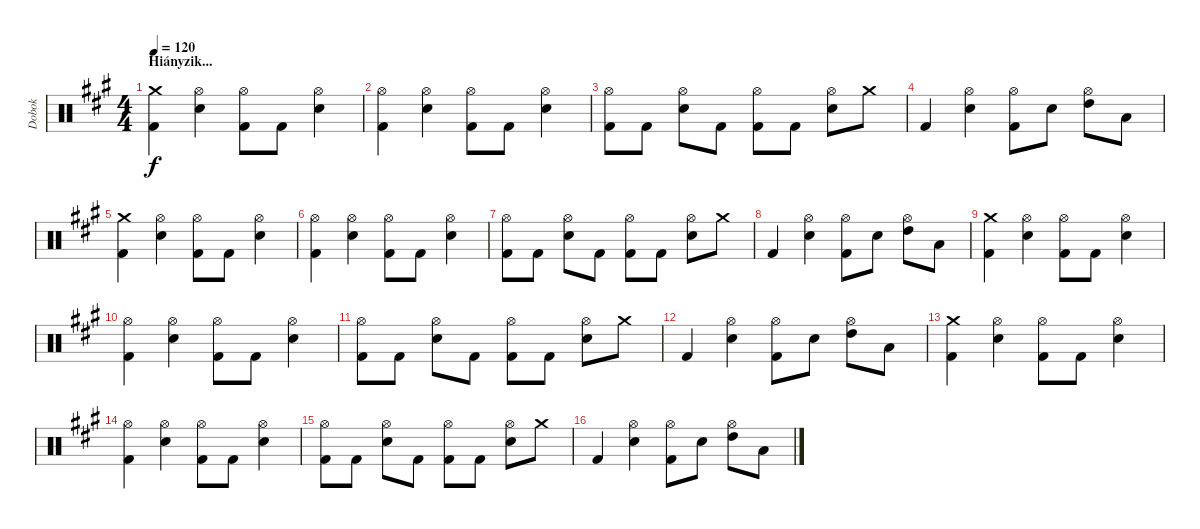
\track ("Dobok" "Dobok") {instrument percussion}
\staff {score}
\articulation defaults
\ts (4 4)
\section ("" "Hiányzik...")
\tempo 120
\clef neutral
\ks a
("Crash medium (hit)" "Kick (hit) 2").4{dy f} ("Hi-Hat (open)" "Snare (hit) 2").4 ("Hi-Hat (open)" "Kick (hit) 2").8 "Kick (hit) 2".8 ("Hi-Hat (open)" "Snare (hit) 2").4 |
("Hi-Hat (open)" "Kick (hit) 2").4 ("Hi-Hat (open)" "Snare (hit) 2").4 ("Hi-Hat (open)" "Kick (hit) 2").8 "Kick (hit) 2".8 ("Hi-Hat (open)" "Snare (hit) 2").4 |
("Hi-Hat (open)" "Kick (hit) 2").8 "Kick (hit) 2".8 ("Hi-Hat (open)" "Snare (hit) 2").8 "Kick (hit) 2".8 ("Hi-Hat (open)" "Kick (hit) 2").8 "Kick (hit) 2".8 ("Hi-Hat (open)" "Snare (hit) 2").8 "Crash medium (hit)".8 |
"Kick (hit) 2".4 ("Hi-Hat (open)" "Snare (hit) 2").4 ("Hi-Hat (open)" "Kick (hit) 2").8 "Snare (hit) 2".8 ("Hi-Hat (open)" "High Tom (hit)").8 "Low Tom (hit)".8 |
("Crash medium (hit)" "Kick (hit) 2").4 ("Hi-Hat (open)" "Snare (hit) 2").4 ("Hi-Hat (open)" "Kick (hit) 2").8 "Kick (hit) 2".8 ("Hi-Hat (open)" "Snare (hit) 2").4 |
("Hi-Hat (open)" "Kick (hit) 2").4 ("Hi-Hat (open)" "Snare (hit) 2").4 ("Hi-Hat (open)" "Kick (hit) 2").8 "Kick (hit) 2".8 ("Hi-Hat (open)" "Snare (hit) 2").4 |
("Hi-Hat (open)" "Kick (hit) 2").8 "Kick (hit) 2".8 ("Hi-Hat (open)" "Snare (hit) 2").8 "Kick (hit) 2".8 ("Hi-Hat (open)" "Kick (hit) 2").8 "Kick (hit) 2".8 ("Hi-Hat (open)" "Snare (hit) 2").8 "Crash medium (hit)".8 |
"Kick (hit) 2".4 ("Hi-Hat (open)" "Snare (hit) 2").4 ("Hi-Hat (open)" "Kick (hit) 2").8 "Snare (hit) 2".8 ("Hi-Hat (open)" "High Tom (hit)").8 "Low Tom (hit)".8 |
("Crash medium (hit)" "Kick (hit) 2").4 ("Hi-Hat (open)" "Snare (hit) 2").4 ("Hi-Hat (open)" "Kick (hit) 2").8 "Kick (hit) 2".8 ("Hi-Hat (open)" "Snare (hit) 2").4 |
("Hi-Hat (open)" "Kick (hit) 2").4 ("Hi-Hat (open)" "Snare (hit) 2").4 ("Hi-Hat (open)" "Kick (hit) 2").8 "Kick (hit) 2".8 ("Hi-Hat (open)" "Snare (hit) 2").4 |
("Hi-Hat (open)" "Kick (hit) 2").8 "Kick (hit) 2".8 ("Hi-Hat (open)" "Snare (hit) 2").8 "Kick (hit) 2".8 ("Hi-Hat (open)" "Kick (hit) 2").8 "Kick (hit) 2".8 ("Hi-Hat (open)" "Snare (hit) 2").8 "Crash medium (hit)".8 |
"Kick (hit) 2".4 ("Hi-Hat (open)" "Snare (hit) 2").4 ("Hi-Hat (open)" "Kick (hit) 2").8 "Snare (hit) 2".8 ("Hi-Hat (open)" "High Tom (hit)").8 "Low Tom (hit)".8 |
("Crash medium (hit)" "Kick (hit) 2").4 ("Hi-Hat (open)" "Snare (hit) 2").4 ("Hi-Hat (open)" "Kick (hit) 2").8 "Kick (hit) 2".8 ("Hi-Hat (open)" "Snare (hit) 2").4 |
("Hi-Hat (open)" "Kick (hit) 2").4 ("Hi-Hat (open)" "Snare (hit) 2").4 ("Hi-Hat (open)" "Kick (hit) 2").8 "Kick (hit) 2".8 ("Hi-Hat (open)" "Snare (hit) 2").4 |
("Hi-Hat (open)" "Kick (hit) 2").8 "Kick (hit) 2".8 ("Hi-Hat (open)" "Snare (hit) 2").8 "Kick (hit) 2".8 ("Hi-Hat (open)" "Kick (hit) 2").8 "Kick (hit) 2".8 ("Hi-Hat (open)" "Snare (hit) 2").8 "Crash medium (hit)".8 |
"Kick (hit) 2".4 ("Hi-Hat (open)" "Snare (hit) 2").4 ("Hi-Hat (open)" "Kick (hit) 2").8 "Snare (hit) 2".8 ("Hi-Hat (open)" "High Tom (hit)").8 "Low Tom (hit)".8
